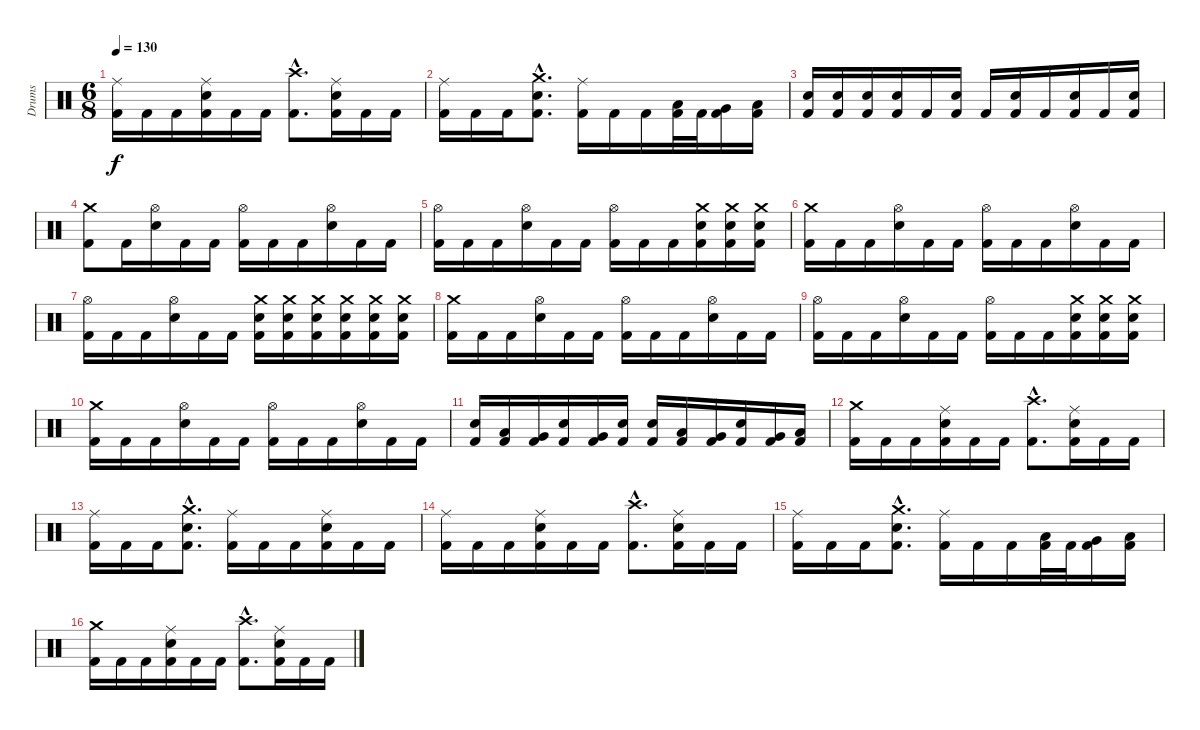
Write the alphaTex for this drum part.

\track ("Drums" "Drums") {instrument percussion}
\staff {score}
\articulation defaults
\ts (6 8)
\tempo 130
\clef neutral
\ks c
("Ride (middle)" "Kick (hit) 2").16{dy f} "Kick (hit) 2".16 "Kick (hit) 2".16 ("Ride (middle)" "Electric Snare (hit)" "Kick (hit) 2").16 "Kick (hit) 2".16 "Kick (hit) 2".16 ("Crash high (hit)"{hac} "Kick (hit) 2"{hac}).8{d} ("Ride (middle)" "Electric Snare (hit)" "Kick (hit) 2").16 "Kick (hit) 2".16 "Kick (hit) 2".16 |
("Ride (middle)" "Kick (hit) 2").16 "Kick (hit) 2".16 "Kick (hit) 2".16 ("Crash medium (hit)"{hac} "Electric Snare (hit)"{hac} "Kick (hit) 2"{hac}).8{d} ("Ride (middle)" "Kick (hit) 2").16 "Kick (hit) 2".16 "Kick (hit) 2".16 ("Low Tom (hit)" "Kick (hit) 2").32 "Kick (hit) 2".32 ("Very Low Tom (hit)" "Kick (hit) 2").16 ("Low Floor Tom (hit)" "Kick (hit) 2").16 |
("Electric Snare (hit)" "Kick (hit) 2").16 ("Electric Snare (hit)" "Kick (hit) 2").16 ("Electric Snare (hit)" "Kick (hit) 2").16 ("Electric Snare (hit)" "Kick (hit) 2").16 "Kick (hit) 2".16 ("Electric Snare (hit)" "Kick (hit) 2").16 "Kick (hit) 2".16 ("Electric Snare (hit)" "Kick (hit) 2").16 "Kick (hit) 2".16 ("Electric Snare (hit)" "Kick (hit) 2").16 "Kick (hit) 2".16 ("Electric Snare (hit)" "Kick (hit) 2").16 |
\section ("" "")
("Crash medium (hit)" "Kick (hit) 2").8 "Kick (hit) 2".16 ("Hi-Hat (open)" "Electric Snare (hit)").16 "Kick (hit) 2".16 "Kick (hit) 2".16 ("Hi-Hat (open)" "Kick (hit) 2").16 "Kick (hit) 2".16 "Kick (hit) 2".16 ("Hi-Hat (open)" "Electric Snare (hit)").16 "Kick (hit) 2".16 "Kick (hit) 2".16 |
("Hi-Hat (open)" "Kick (hit) 2").16 "Kick (hit) 2".16 "Kick (hit) 2".16 ("Hi-Hat (open)" "Electric Snare (hit)").16 "Kick (hit) 2".16 "Kick (hit) 2".16 ("Hi-Hat (open)" "Kick (hit) 2").16 "Kick (hit) 2".16 "Kick (hit) 2".16 ("Crash medium (hit)" "Electric Snare (hit)" "Kick (hit) 2").16 ("Crash medium (hit)" "Electric Snare (hit)" "Kick (hit) 2").16 ("Crash medium (hit)" "Electric Snare (hit)" "Kick (hit) 2").16 |
("Crash medium (hit)" "Kick (hit) 2").16 "Kick (hit) 2".16 "Kick (hit) 2".16 ("Hi-Hat (open)" "Electric Snare (hit)").16 "Kick (hit) 2".16 "Kick (hit) 2".16 ("Hi-Hat (open)" "Kick (hit) 2").16 "Kick (hit) 2".16 "Kick (hit) 2".16 ("Hi-Hat (open)" "Electric Snare (hit)").16 "Kick (hit) 2".16 "Kick (hit) 2".16 |
("Hi-Hat (open)" "Kick (hit) 2").16 "Kick (hit) 2".16 "Kick (hit) 2".16 ("Hi-Hat (open)" "Electric Snare (hit)").16 "Kick (hit) 2".16 "Kick (hit) 2".16 ("Crash medium (hit)" "Electric Snare (hit)" "Kick (hit) 2").16 ("Crash medium (hit)" "Electric Snare (hit)" "Kick (hit) 2").16 ("Crash medium (hit)" "Electric Snare (hit)" "Kick (hit) 2").16 ("Crash medium (hit)" "Electric Snare (hit)" "Kick (hit) 2").16 ("Crash medium (hit)" "Electric Snare (hit)" "Kick (hit) 2").16 ("Crash medium (hit)" "Electric Snare (hit)" "Kick (hit) 2").16 |
("Crash medium (hit)" "Kick (hit) 2").16 "Kick (hit) 2".16 "Kick (hit) 2".16 ("Hi-Hat (open)" "Electric Snare (hit)").16 "Kick (hit) 2".16 "Kick (hit) 2".16 ("Hi-Hat (open)" "Kick (hit) 2").16 "Kick (hit) 2".16 "Kick (hit) 2".16 ("Hi-Hat (open)" "Electric Snare (hit)").16 "Kick (hit) 2".16 "Kick (hit) 2".16 |
("Hi-Hat (open)" "Kick (hit) 2").16 "Kick (hit) 2".16 "Kick (hit) 2".16 ("Hi-Hat (open)" "Electric Snare (hit)").16 "Kick (hit) 2".16 "Kick (hit) 2".16 ("Hi-Hat (open)" "Kick (hit) 2").16 "Kick (hit) 2".16 "Kick (hit) 2".16 ("Crash medium (hit)" "Electric Snare (hit)" "Kick (hit) 2").16 ("Crash medium (hit)" "Electric Snare (hit)" "Kick (hit) 2").16 ("Crash medium (hit)" "Electric Snare (hit)" "Kick (hit) 2").16 |
("Crash medium (hit)" "Kick (hit) 2").16 "Kick (hit) 2".16 "Kick (hit) 2".16 ("Hi-Hat (open)" "Electric Snare (hit)").16 "Kick (hit) 2".16 "Kick (hit) 2".16 ("Hi-Hat (open)" "Kick (hit) 2").16 "Kick (hit) 2".16 "Kick (hit) 2".16 ("Hi-Hat (open)" "Electric Snare (hit)").16 "Kick (hit) 2".16 "Kick (hit) 2".16 |
("Electric Snare (hit)" "Kick (hit) 2").16 ("Low Tom (hit)" "Kick (hit) 2").16 ("Very Low Tom (hit)" "Kick (hit) 2").16 ("Electric Snare (hit)" "Kick (hit) 2").16 ("Very Low Tom (hit)" "Kick (hit) 2").16 ("Electric Snare (hit)" "Kick (hit) 2").16 ("Electric Snare (hit)" "Kick (hit) 2").16 ("Low Tom (hit)" "Kick (hit) 2").16 ("Very Low Tom (hit)" "Kick (hit) 2").16 ("Electric Snare (hit)" "Kick (hit) 2").16 ("Very Low Tom (hit)" "Kick (hit) 2").16 ("Low Floor Tom (hit)" "Kick (hit) 2").16 |
\section ("" "")
("Crash medium (hit)" "Kick (hit) 2").16 "Kick (hit) 2".16 "Kick (hit) 2".16 ("Ride (middle)" "Electric Snare (hit)" "Kick (hit) 2").16 "Kick (hit) 2".16 "Kick (hit) 2".16 ("Crash high (hit)"{hac} "Kick (hit) 2"{hac}).8{d} ("Ride (middle)" "Electric Snare (hit)" "Kick (hit) 2").16 "Kick (hit) 2".16 "Kick (hit) 2".16 |
("Ride (middle)" "Kick (hit) 2").16 "Kick (hit) 2".16 "Kick (hit) 2".16 ("Crash medium (hit)"{hac} "Electric Snare (hit)"{hac} "Kick (hit) 2"{hac}).8{d} ("Ride (middle)" "Kick (hit) 2").16 "Kick (hit) 2".16 "Kick (hit) 2".16 ("Ride (middle)" "Electric Snare (hit)" "Kick (hit) 2").16 "Kick (hit) 2".16 "Kick (hit) 2".16 |
("Ride (middle)" "Kick (hit) 2").16 "Kick (hit) 2".16 "Kick (hit) 2".16 ("Ride (middle)" "Electric Snare (hit)" "Kick (hit) 2").16 "Kick (hit) 2".16 "Kick (hit) 2".16 ("Crash high (hit)"{hac} "Kick (hit) 2"{hac}).8{d} ("Ride (middle)" "Electric Snare (hit)" "Kick (hit) 2").16 "Kick (hit) 2".16 "Kick (hit) 2".16 |
("Ride (middle)" "Kick (hit) 2").16 "Kick (hit) 2".16 "Kick (hit) 2".16 ("Crash medium (hit)"{hac} "Electric Snare (hit)"{hac} "Kick (hit) 2"{hac}).8{d} ("Ride (middle)" "Kick (hit) 2").16 "Kick (hit) 2".16 "Kick (hit) 2".16 ("Low Tom (hit)" "Kick (hit) 2").32 "Kick (hit) 2".32 ("Very Low Tom (hit)" "Kick (hit) 2").16 ("Low Floor Tom (hit)" "Kick (hit) 2").16 |
("Crash medium (hit)" "Kick (hit) 2").16 "Kick (hit) 2".16 "Kick (hit) 2".16 ("Ride (middle)" "Electric Snare (hit)" "Kick (hit) 2").16 "Kick (hit) 2".16 "Kick (hit) 2".16 ("Crash high (hit)"{hac} "Kick (hit) 2"{hac}).8{d} ("Ride (middle)" "Electric Snare (hit)" "Kick (hit) 2").16 "Kick (hit) 2".16 "Kick (hit) 2".16
